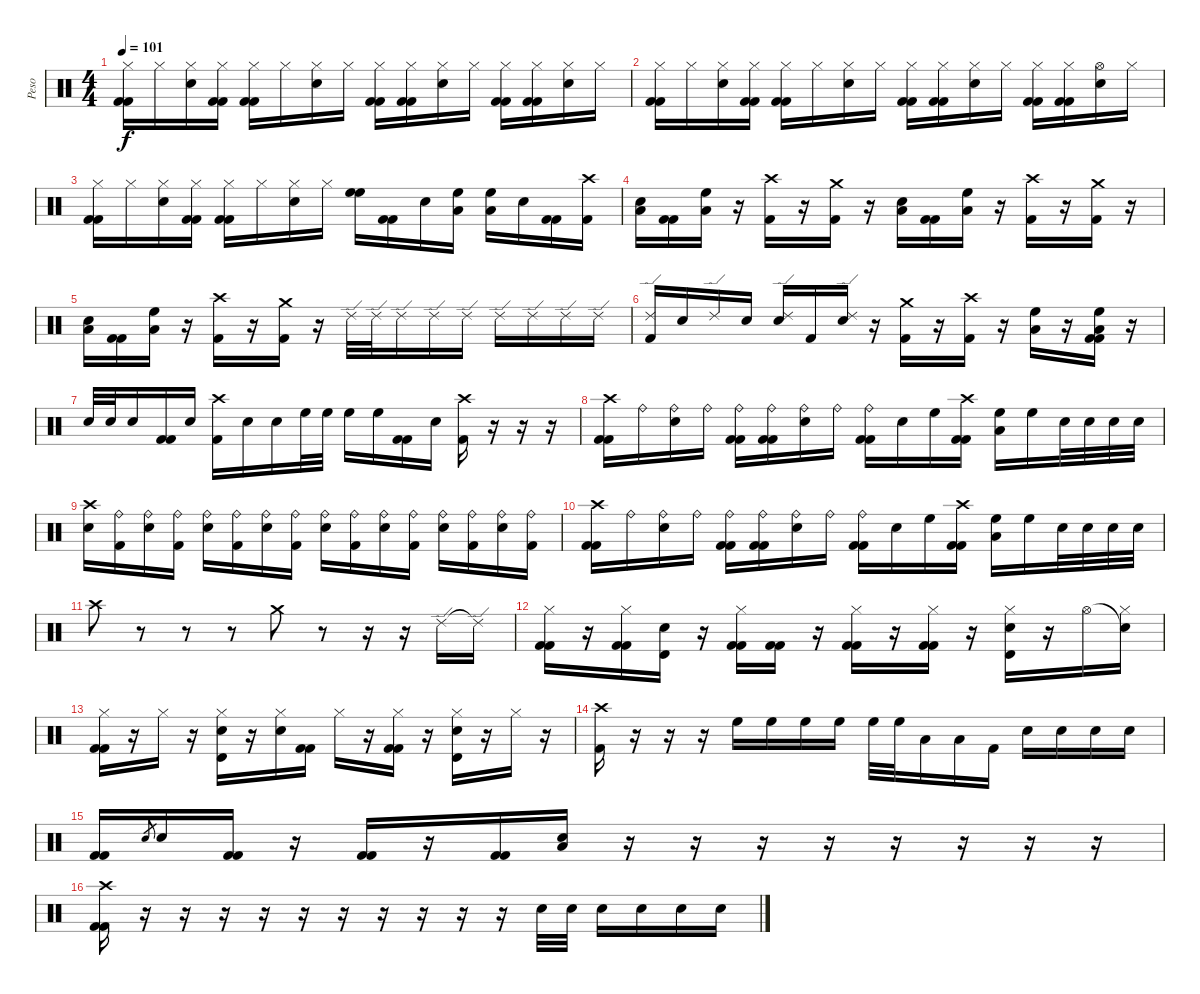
\track ("Peso" "Peso") {instrument percussion}
\staff {score}
\articulation defaults
\ts (4 4)
\tempo 101
\clef neutral
\ks c
("Hi-Hat (closed)" "Kick (hit) 2" "Kick (hit) 2").16{dy f} "Hi-Hat (closed)".16 ("Hi-Hat (closed)" "Snare (hit) 2").16 ("Hi-Hat (closed)" "Kick (hit) 2" "Kick (hit) 2").16 ("Hi-Hat (closed)" "Kick (hit) 2" "Kick (hit) 2").16 "Hi-Hat (closed)".16 ("Hi-Hat (closed)" "Snare (hit) 2").16 "Hi-Hat (closed)".16 ("Hi-Hat (closed)" "Kick (hit) 2" "Kick (hit) 2").16 ("Hi-Hat (closed)" "Kick (hit) 2" "Kick (hit) 2").16 ("Hi-Hat (closed)" "Snare (hit) 2").16 "Hi-Hat (closed)".16 ("Hi-Hat (closed)" "Kick (hit) 2" "Kick (hit) 2").16 ("Hi-Hat (closed)" "Kick (hit) 2" "Kick (hit) 2").16 ("Hi-Hat (closed)" "Snare (hit) 2").16 "Hi-Hat (closed)".16 |
("Hi-Hat (closed)" "Kick (hit) 2" "Kick (hit) 2").16 "Hi-Hat (closed)".16 ("Hi-Hat (closed)" "Snare (hit) 2").16 ("Hi-Hat (closed)" "Kick (hit) 2" "Kick (hit) 2").16 ("Hi-Hat (closed)" "Kick (hit) 2" "Kick (hit) 2").16 "Hi-Hat (closed)".16 ("Hi-Hat (closed)" "Snare (hit) 2").16 "Hi-Hat (closed)".16 ("Hi-Hat (closed)" "Kick (hit) 2" "Kick (hit) 2").16 ("Hi-Hat (closed)" "Kick (hit) 2" "Kick (hit) 2").16 ("Hi-Hat (closed)" "Snare (hit) 2").16 "Hi-Hat (closed)".16 ("Hi-Hat (closed)" "Kick (hit) 2" "Kick (hit) 2").16 ("Hi-Hat (closed)" "Kick (hit) 2" "Kick (hit) 2").16 ("Hi-Hat (open)" "Snare (hit) 2").16 "Hi-Hat (closed)".16 |
("Hi-Hat (closed)" "Kick (hit) 2" "Kick (hit) 2").16 "Hi-Hat (closed)".16 ("Hi-Hat (closed)" "Snare (hit) 2").16 ("Hi-Hat (closed)" "Kick (hit) 2" "Kick (hit) 2").16 ("Hi-Hat (closed)" "Kick (hit) 2" "Kick (hit) 2").16 "Hi-Hat (closed)".16 ("Hi-Hat (closed)" "Snare (hit) 2").16 "Hi-Hat (closed)".16 ("High Floor Tom (hit)" "High Floor Tom (hit)").16 ("Kick (hit) 2" "Kick (hit) 2").16 "Snare (hit) 2".16 ("High Floor Tom (hit)" "Low Floor Tom (hit)").16 ("High Floor Tom (hit)" "Low Floor Tom (hit)").16 "Snare (hit) 2".16 ("Kick (hit) 2" "Kick (hit) 2").16 ("Crash high (hit)" "Kick (hit) 2").16 |
("Low Floor Tom (hit)" "Snare (hit) 2").16 ("Kick (hit) 2" "Kick (hit) 2").16 ("Low Floor Tom (hit)" "High Floor Tom (hit)").16 r.16 ("Crash high (hit)" "Kick (hit) 2").16 r.16 ("Crash medium (hit)" "Kick (hit) 2").16 r.16 ("Low Floor Tom (hit)" "Snare (hit) 2").16 ("Kick (hit) 2" "Kick (hit) 2").16 ("Low Floor Tom (hit)" "High Floor Tom (hit)").16 r.16 ("Crash high (hit)" "Kick (hit) 2").16 r.16 ("Crash medium (hit)" "Kick (hit) 2").16 r.16 |
("Low Floor Tom (hit)" "Snare (hit) 2").16 ("Kick (hit) 2" "Kick (hit) 2").16 ("Low Floor Tom (hit)" "High Floor Tom (hit)").16 r.16 ("Crash high (hit)" "Kick (hit) 2").16 r.16 ("Crash medium (hit)" "Kick (hit) 2").16 r.16 "Ride (edge) 2".32 "Ride (edge) 2".32 "Ride (edge) 2".16 "Ride (edge) 2".16 "Ride (edge) 2".16 "Ride (edge) 2".16 "Ride (edge) 2".16 "Ride (edge) 2".16 "Ride (edge) 2".16 |
("Ride (edge) 2" "Kick (hit) 2").16 "Snare (hit) 2".16 "Ride (edge) 2".16 "Snare (hit) 2".16 ("Ride (edge) 2" "Snare (hit) 2").16 "Kick (hit) 2".16 ("Ride (edge) 2" "Snare (hit) 2").16 r.16 ("Crash medium (hit)" "Kick (hit) 2").16 r.16 ("Crash high (hit)" "Kick (hit) 2").16 r.16 ("Low Floor Tom (hit)" "High Floor Tom (hit)").16 r.16 ("High Floor Tom (hit)" "Low Floor Tom (hit)" "Kick (hit) 2" "Kick (hit) 2").16 r.16 |
"Snare (hit) 2".32 "Snare (hit) 2".32 "Snare (hit) 2".16 ("Kick (hit) 2" "Kick (hit) 2").16 "Snare (hit) 2".16 ("Crash high (hit)" "Kick (hit) 2").16 "Snare (hit) 2".16 "Snare (hit) 2".16 "High Floor Tom (hit)".32 "High Floor Tom (hit)".32 "High Floor Tom (hit)".16 "High Floor Tom (hit)".16 ("Kick (hit) 2" "Kick (hit) 2").16 "Snare (hit) 2".16 ("Crash high (hit)" "Kick (hit) 2").16 r.16 r.16 r.16 |
("Crash high (hit)" "Kick (hit) 2" "Kick (hit) 2").16 "Ride (bell)".16 ("Ride (bell)" "Snare (hit) 2").16 "Ride (bell)".16 ("Ride (bell)" "Kick (hit) 2" "Kick (hit) 2").16 ("Ride (bell)" "Kick (hit) 2" "Kick (hit) 2").16 ("Ride (bell)" "Snare (hit) 2").16 "Ride (bell)".16 ("Ride (bell)" "Kick (hit) 2" "Kick (hit) 2").16 "Snare (hit) 2".16 "High Floor Tom (hit)".16 ("Crash high (hit)" "Kick (hit) 2" "Kick (hit) 2").16 ("High Floor Tom (hit)" "Low Floor Tom (hit)").16 "High Floor Tom (hit)".16 "Snare (hit) 2".32 "Snare (hit) 2".32 "Snare (hit) 2".32 "Snare (hit) 2".32 |
("Crash high (hit)" "Snare (hit) 2").16 ("Ride (bell)" "Kick (hit) 2").16 ("Ride (bell)" "Snare (hit) 2").16 ("Ride (bell)" "Kick (hit) 2").16 ("Ride (bell)" "Snare (hit) 2").16 ("Ride (bell)" "Kick (hit) 2").16 ("Ride (bell)" "Snare (hit) 2").16 ("Ride (bell)" "Kick (hit) 2").16 ("Ride (bell)" "Snare (hit) 2").16 ("Ride (bell)" "Kick (hit) 2").16 ("Ride (bell)" "Snare (hit) 2").16 ("Ride (bell)" "Kick (hit) 2").16 ("Ride (bell)" "Snare (hit) 2").16 ("Ride (bell)" "Kick (hit) 2").16 ("Ride (bell)" "Snare (hit) 2").16 ("Ride (bell)" "Kick (hit) 2").16 |
("Crash high (hit)" "Kick (hit) 2" "Kick (hit) 2").16 "Ride (bell)".16 ("Ride (bell)" "Snare (hit) 2").16 "Ride (bell)".16 ("Ride (bell)" "Kick (hit) 2" "Kick (hit) 2").16 ("Ride (bell)" "Kick (hit) 2" "Kick (hit) 2").16 ("Ride (bell)" "Snare (hit) 2").16 "Ride (bell)".16 ("Ride (bell)" "Kick (hit) 2" "Kick (hit) 2").16 "Snare (hit) 2".16 "High Floor Tom (hit)".16 ("Crash high (hit)" "Kick (hit) 2" "Kick (hit) 2").16 ("High Floor Tom (hit)" "Low Floor Tom (hit)").16 "High Floor Tom (hit)".16 "Snare (hit) 2".32 "Snare (hit) 2".32 "Snare (hit) 2".32 "Snare (hit) 2".32 |
"Crash high (hit)".8 r.8 r.8 r.8 "Crash medium (hit)".8 r.8 r.16 r.16 "Ride (edge) 2".16 "Ride (edge) 2"{t}.16 |
("Hi-Hat (closed)" "Kick (hit) 2" "Kick (hit) 2").16 r.16 ("Hi-Hat (closed)" "Kick (hit) 2" "Kick (hit) 2").16 ("Timbale high (hit)" "Snare (hit) 2").16 r.16 ("Hi-Hat (closed)" "Kick (hit) 2" "Kick (hit) 2").16 ("Kick (hit) 2" "Kick (hit) 2").16 r.16 ("Hi-Hat (closed)" "Kick (hit) 2" "Kick (hit) 2").16 r.16 ("Hi-Hat (closed)" "Kick (hit) 2" "Kick (hit) 2").16 r.16 ("Hi-Hat (closed)" "Timbale high (hit)" "Snare (hit) 2").16 r.16 "Hi-Hat (open)".16 ("Snare (hit)"{t} "Hi-Hat (closed)").16 |
("Hi-Hat (closed)" "Kick (hit) 2" "Kick (hit) 2").16 r.16 "Hi-Hat (closed)".16 r.16 ("Hi-Hat (closed)" "Timbale high (hit)" "Snare (hit) 2").16 r.16 ("Hi-Hat (closed)" "Snare (hit) 2").16 ("Kick (hit) 2" "Kick (hit) 2").16 "Hi-Hat (closed)".16 r.16 ("Hi-Hat (closed)" "Kick (hit) 2" "Kick (hit) 2").16 r.16 ("Hi-Hat (closed)" "Timbale high (hit)" "Snare (hit) 2").16 r.16 "Hi-Hat (closed)".16 r.16 |
("Crash high (hit)" "Kick (hit) 2").16 r.16 r.16 r.16 "High Floor Tom (hit)".16 "High Floor Tom (hit)".16 "High Floor Tom (hit)".16 "High Floor Tom (hit)".16 "High Floor Tom (hit)".32 "High Floor Tom (hit)".32 "Low Floor Tom (hit)".16 "Low Floor Tom (hit)".16 "Kick (hit) 2".16 "Snare (hit) 2".16 "Snare (hit) 2".16 "Snare (hit) 2".16 "Snare (hit) 2".16 |
("Kick (hit) 2" "Kick (hit) 2").16 "Snare (hit) 2".8{gr} "Snare (hit) 2".16 ("Kick (hit) 2" "Kick (hit) 2").16 r.16 ("Kick (hit) 2" "Kick (hit) 2").16 r.16 ("Kick (hit) 2" "Kick (hit) 2").16 ("Low Floor Tom (hit)" "Snare (hit) 2").16 r.16 r.16 r.16 r.16 r.16 r.16 r.16 r.16 |
("Crash high (hit)" "Kick (hit) 2" "Kick (hit) 2").16 r.16 r.16 r.16 r.16 r.16 r.16 r.16 r.16 r.16 r.16 "Snare (hit) 2".32 "Snare (hit) 2".32 "Snare (hit) 2".16 "Snare (hit) 2".16 "Snare (hit) 2".16 "Snare (hit) 2".16
